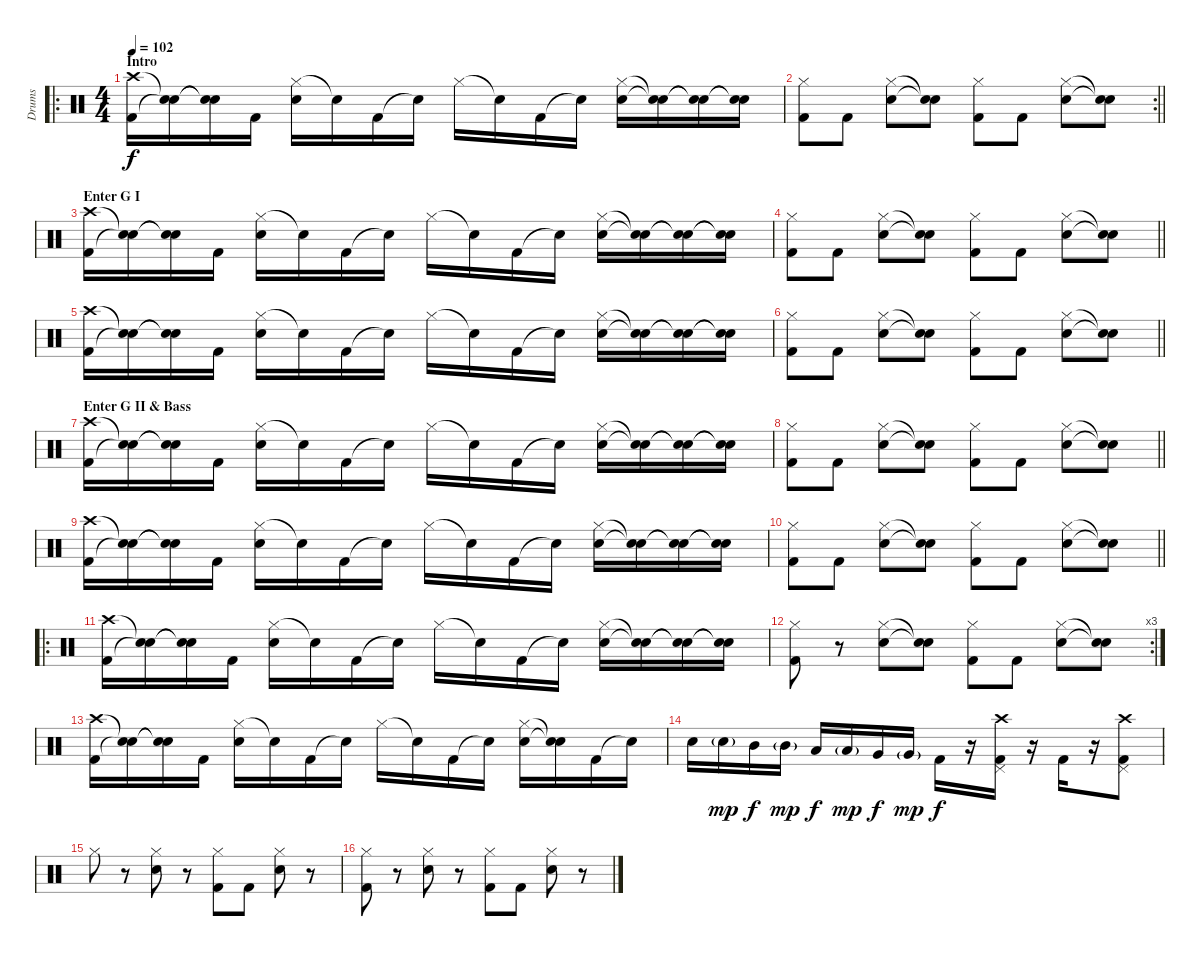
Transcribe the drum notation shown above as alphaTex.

\track ("Drums" "Drums") {instrument percussion}
\staff {score}
\articulation defaults
\ro
\ts (4 4)
\section ("" "Intro")
\tempo 102
\clef neutral
\ks c
("Crash high (hit)" "Kick (hit) 2").16{dy f} ("Snare (hit)"{t} "Snare (hit)"{t}).16 ("Snare (hit)"{t} "Snare (hit)"{t}).16 "Kick (hit) 2".16 ("Hi-Hat (closed)" "Snare (hit) 2").16 "Snare (hit)"{t}.16 "Kick (hit) 2".16 "Snare (hit)"{t}.16 "Hi-Hat (closed)".16 "Snare (hit)"{t}.16 "Kick (hit) 2".16 "Snare (hit)"{t}.16 ("Hi-Hat (closed)" "Snare (hit) 2").16 ("Snare (hit)"{t} "Snare (hit)"{t}).16 ("Snare (hit)"{t} "Snare (hit)"{t}).16 ("Snare (hit)"{t} "Snare (hit)"{t}).16 |
\rc 2
\barLineRight lightlight
("Hi-Hat (closed)" "Kick (hit) 2").8 "Kick (hit) 2".8 ("Hi-Hat (closed)" "Snare (hit) 2").8 ("Snare (hit)"{t} "Snare (hit)"{t}).8 ("Hi-Hat (closed)" "Kick (hit) 2").8 "Kick (hit) 2".8 ("Hi-Hat (closed)" "Snare (hit) 2").8 ("Snare (hit)"{t} "Snare (hit)"{t}).8 |
\section ("" "Enter G I")
("Crash high (hit)" "Kick (hit) 2").16 ("Snare (hit)"{t} "Snare (hit)"{t}).16 ("Snare (hit)"{t} "Snare (hit)"{t}).16 "Kick (hit) 2".16 ("Hi-Hat (closed)" "Snare (hit) 2").16 "Snare (hit)"{t}.16 "Kick (hit) 2".16 "Snare (hit)"{t}.16 "Hi-Hat (closed)".16 "Snare (hit)"{t}.16 "Kick (hit) 2".16 "Snare (hit)"{t}.16 ("Hi-Hat (closed)" "Snare (hit) 2").16 ("Snare (hit)"{t} "Snare (hit)"{t}).16 ("Snare (hit)"{t} "Snare (hit)"{t}).16 ("Snare (hit)"{t} "Snare (hit)"{t}).16 |
\barLineRight lightlight
("Hi-Hat (closed)" "Kick (hit) 2").8 "Kick (hit) 2".8 ("Hi-Hat (closed)" "Snare (hit) 2").8 ("Snare (hit)"{t} "Snare (hit)"{t}).8 ("Hi-Hat (closed)" "Kick (hit) 2").8 "Kick (hit) 2".8 ("Hi-Hat (closed)" "Snare (hit) 2").8 ("Snare (hit)"{t} "Snare (hit)"{t}).8 |
("Crash high (hit)" "Kick (hit) 2").16 ("Snare (hit)"{t} "Snare (hit)"{t}).16 ("Snare (hit)"{t} "Snare (hit)"{t}).16 "Kick (hit) 2".16 ("Hi-Hat (closed)" "Snare (hit) 2").16 "Snare (hit)"{t}.16 "Kick (hit) 2".16 "Snare (hit)"{t}.16 "Hi-Hat (closed)".16 "Snare (hit)"{t}.16 "Kick (hit) 2".16 "Snare (hit)"{t}.16 ("Hi-Hat (closed)" "Snare (hit) 2").16 ("Snare (hit)"{t} "Snare (hit)"{t}).16 ("Snare (hit)"{t} "Snare (hit)"{t}).16 ("Snare (hit)"{t} "Snare (hit)"{t}).16 |
\barLineRight lightlight
("Hi-Hat (closed)" "Kick (hit) 2").8 "Kick (hit) 2".8 ("Hi-Hat (closed)" "Snare (hit) 2").8 ("Snare (hit)"{t} "Snare (hit)"{t}).8 ("Hi-Hat (closed)" "Kick (hit) 2").8 "Kick (hit) 2".8 ("Hi-Hat (closed)" "Snare (hit) 2").8 ("Snare (hit)"{t} "Snare (hit)"{t}).8 |
\section ("" "Enter G II & Bass")
("Crash high (hit)" "Kick (hit) 2").16 ("Snare (hit)"{t} "Snare (hit)"{t}).16 ("Snare (hit)"{t} "Snare (hit)"{t}).16 "Kick (hit) 2".16 ("Hi-Hat (closed)" "Snare (hit) 2").16 "Snare (hit)"{t}.16 "Kick (hit) 2".16 "Snare (hit)"{t}.16 "Hi-Hat (closed)".16 "Snare (hit)"{t}.16 "Kick (hit) 2".16 "Snare (hit)"{t}.16 ("Hi-Hat (closed)" "Snare (hit) 2").16 ("Snare (hit)"{t} "Snare (hit)"{t}).16 ("Snare (hit)"{t} "Snare (hit)"{t}).16 ("Snare (hit)"{t} "Snare (hit)"{t}).16 |
\barLineRight lightlight
("Hi-Hat (closed)" "Kick (hit) 2").8 "Kick (hit) 2".8 ("Hi-Hat (closed)" "Snare (hit) 2").8 ("Snare (hit)"{t} "Snare (hit)"{t}).8 ("Hi-Hat (closed)" "Kick (hit) 2").8 "Kick (hit) 2".8 ("Hi-Hat (closed)" "Snare (hit) 2").8 ("Snare (hit)"{t} "Snare (hit)"{t}).8 |
("Crash high (hit)" "Kick (hit) 2").16 ("Snare (hit)"{t} "Snare (hit)"{t}).16 ("Snare (hit)"{t} "Snare (hit)"{t}).16 "Kick (hit) 2".16 ("Hi-Hat (closed)" "Snare (hit) 2").16 "Snare (hit)"{t}.16 "Kick (hit) 2".16 "Snare (hit)"{t}.16 "Hi-Hat (closed)".16 "Snare (hit)"{t}.16 "Kick (hit) 2".16 "Snare (hit)"{t}.16 ("Hi-Hat (closed)" "Snare (hit) 2").16 ("Snare (hit)"{t} "Snare (hit)"{t}).16 ("Snare (hit)"{t} "Snare (hit)"{t}).16 ("Snare (hit)"{t} "Snare (hit)"{t}).16 |
\barLineRight lightlight
("Hi-Hat (closed)" "Kick (hit) 2").8 "Kick (hit) 2".8 ("Hi-Hat (closed)" "Snare (hit) 2").8 ("Snare (hit)"{t} "Snare (hit)"{t}).8 ("Hi-Hat (closed)" "Kick (hit) 2").8 "Kick (hit) 2".8 ("Hi-Hat (closed)" "Snare (hit) 2").8 ("Snare (hit)"{t} "Snare (hit)"{t}).8 |
\ro
("Crash high (hit)" "Kick (hit) 2").16 ("Snare (hit)"{t} "Snare (hit)"{t}).16 ("Snare (hit)"{t} "Snare (hit)"{t}).16 "Kick (hit) 2".16 ("Hi-Hat (closed)" "Snare (hit) 2").16 "Snare (hit)"{t}.16 "Kick (hit) 2".16 "Snare (hit)"{t}.16 "Hi-Hat (closed)".16 "Snare (hit)"{t}.16 "Kick (hit) 2".16 "Snare (hit)"{t}.16 ("Hi-Hat (closed)" "Snare (hit) 2").16 ("Snare (hit)"{t} "Snare (hit)"{t}).16 ("Snare (hit)"{t} "Snare (hit)"{t}).16 ("Snare (hit)"{t} "Snare (hit)"{t}).16 |
\rc 3
("Hi-Hat (closed)" "Kick (hit) 2").8 r.8 ("Hi-Hat (closed)" "Snare (hit) 2").8 ("Snare (hit)"{t} "Snare (hit)"{t}).8 ("Hi-Hat (closed)" "Kick (hit) 2").8 "Kick (hit) 2".8 ("Hi-Hat (closed)" "Snare (hit) 2").8 ("Snare (hit)"{t} "Snare (hit)"{t}).8 |
("Crash high (hit)" "Kick (hit) 2").16 ("Snare (hit)"{t} "Snare (hit)"{t}).16 ("Snare (hit)"{t} "Snare (hit)"{t}).16 "Kick (hit) 2".16 ("Hi-Hat (closed)" "Snare (hit) 2").16 "Snare (hit)"{t}.16 "Kick (hit) 2".16 "Snare (hit)"{t}.16 "Hi-Hat (closed)".16 "Snare (hit)"{t}.16 "Kick (hit) 2".16 "Snare (hit)"{t}.16 ("Hi-Hat (closed)" "Snare (hit) 2").16 ("Snare (hit)"{t} "Snare (hit)"{t}).16 "Kick (hit) 2".16 "Snare (hit)"{t}.16 |
"Electric Snare (hit)".16 "Electric Snare (hit)"{g}.16{dy mp} "Mid Tom (hit)".16{dy f} "Mid Tom (hit)"{g}.16{dy mp} "Low Tom (hit)".16{dy f} "Low Tom (hit)"{g}.16{dy mp} "Very Low Tom (hit)".16{dy f} "Very Low Tom (hit)"{g}.16{dy mp} "Kick (hit) 2".16{dy f} r.16 ("Crash high (hit)" "Pedal Hi-Hat (hit)" "Kick (hit) 2").16 r.16 "Kick (hit) 2".16 r.16 ("Crash high (hit)" "Pedal Hi-Hat (hit)" "Kick (hit) 2").8 |
"Hi-Hat (closed)".8 r.8 ("Hi-Hat (closed)" "Snare (hit) 2").8 r.8 ("Hi-Hat (closed)" "Kick (hit) 2").8 "Kick (hit) 2".8 ("Hi-Hat (closed)" "Snare (hit) 2").8 r.8 |
("Hi-Hat (closed)" "Kick (hit) 2").8 r.8 ("Hi-Hat (closed)" "Snare (hit) 2").8 r.8 ("Hi-Hat (closed)" "Kick (hit) 2").8 "Kick (hit) 2".8 ("Hi-Hat (closed)" "Snare (hit) 2").8 r.8
